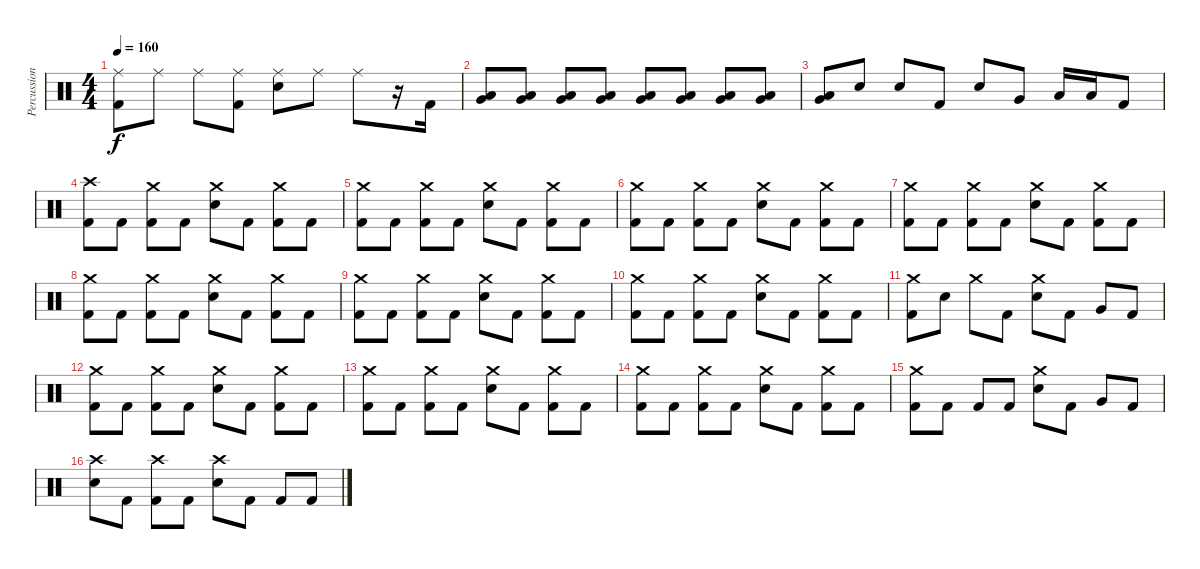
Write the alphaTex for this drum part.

\track ("Percussion" "Percussion") {instrument percussion}
\staff {score}
\articulation defaults
\ts (4 4)
\tempo 160
\clef neutral
\ks c
("Ride (middle)" "Kick (hit) 2").8{dy f} "Ride (middle)".8 "Ride (middle)".8 ("Ride (middle)" "Kick (hit) 2").8 ("Ride (middle)" "Electric Snare (hit)").8 "Ride (middle)".8 "Ride (middle)".8 r.16 "Kick (hit) 2".16 |
("Very Low Tom (hit)" "Low Floor Tom (hit)").8 ("Very Low Tom (hit)" "Low Floor Tom (hit)").8 ("Very Low Tom (hit)" "Low Floor Tom (hit)").8 ("Very Low Tom (hit)" "Low Floor Tom (hit)").8 ("Very Low Tom (hit)" "Low Floor Tom (hit)").8 ("Very Low Tom (hit)" "Low Floor Tom (hit)").8 ("Very Low Tom (hit)" "Low Floor Tom (hit)").8 ("Very Low Tom (hit)" "Low Floor Tom (hit)").8 |
("Very Low Tom (hit)" "Low Floor Tom (hit)").8 "Electric Snare (hit)".8 "Electric Snare (hit)".8 "Kick (hit) 2".8 "Electric Snare (hit)".8 "Very Low Tom (hit)".8 "Low Floor Tom (hit)".16 "Low Floor Tom (hit)".16 "Kick (hit) 2".8 |
("Crash high (hit)" "Kick (hit) 2").8 "Kick (hit) 2".8 ("Crash medium (hit)" "Kick (hit) 2").8 "Kick (hit) 2".8 ("Crash medium (hit)" "Electric Snare (hit)").8 "Kick (hit) 2".8 ("Crash medium (hit)" "Kick (hit) 2").8 "Kick (hit) 2".8 |
("Crash medium (hit)" "Kick (hit) 2").8 "Kick (hit) 2".8 ("Crash medium (hit)" "Kick (hit) 2").8 "Kick (hit) 2".8 ("Crash medium (hit)" "Electric Snare (hit)").8 "Kick (hit) 2".8 ("Crash medium (hit)" "Kick (hit) 2").8 "Kick (hit) 2".8 |
("Crash medium (hit)" "Kick (hit) 2").8 "Kick (hit) 2".8 ("Crash medium (hit)" "Kick (hit) 2").8 "Kick (hit) 2".8 ("Crash medium (hit)" "Electric Snare (hit)").8 "Kick (hit) 2".8 ("Crash medium (hit)" "Kick (hit) 2").8 "Kick (hit) 2".8 |
("Crash medium (hit)" "Kick (hit) 2").8 "Kick (hit) 2".8 ("Crash medium (hit)" "Kick (hit) 2").8 "Kick (hit) 2".8 ("Crash medium (hit)" "Electric Snare (hit)").8 "Kick (hit) 2".8 ("Crash medium (hit)" "Kick (hit) 2").8 "Kick (hit) 2".8 |
("Crash medium (hit)" "Kick (hit) 2").8 "Kick (hit) 2".8 ("Crash medium (hit)" "Kick (hit) 2").8 "Kick (hit) 2".8 ("Crash medium (hit)" "Electric Snare (hit)").8 "Kick (hit) 2".8 ("Crash medium (hit)" "Kick (hit) 2").8 "Kick (hit) 2".8 |
("Crash medium (hit)" "Kick (hit) 2").8 "Kick (hit) 2".8 ("Crash medium (hit)" "Kick (hit) 2").8 "Kick (hit) 2".8 ("Crash medium (hit)" "Electric Snare (hit)").8 "Kick (hit) 2".8 ("Crash medium (hit)" "Kick (hit) 2").8 "Kick (hit) 2".8 |
("Crash medium (hit)" "Kick (hit) 2").8 "Kick (hit) 2".8 ("Crash medium (hit)" "Kick (hit) 2").8 "Kick (hit) 2".8 ("Crash medium (hit)" "Electric Snare (hit)").8 "Kick (hit) 2".8 ("Crash medium (hit)" "Kick (hit) 2").8 "Kick (hit) 2".8 |
("Crash medium (hit)" "Kick (hit) 2").8 "Electric Snare (hit)".8 "Crash medium (hit)".8 "Kick (hit) 2".8 ("Crash medium (hit)" "Electric Snare (hit)").8 "Kick (hit) 2".8 "Very Low Tom (hit)".8 "Kick (hit) 2".8 |
("Crash medium (hit)" "Kick (hit) 2").8 "Kick (hit) 2".8 ("Crash medium (hit)" "Kick (hit) 2").8 "Kick (hit) 2".8 ("Crash medium (hit)" "Electric Snare (hit)").8 "Kick (hit) 2".8 ("Crash medium (hit)" "Kick (hit) 2").8 "Kick (hit) 2".8 |
("Crash medium (hit)" "Kick (hit) 2").8 "Kick (hit) 2".8 ("Crash medium (hit)" "Kick (hit) 2").8 "Kick (hit) 2".8 ("Crash medium (hit)" "Electric Snare (hit)").8 "Kick (hit) 2".8 ("Crash medium (hit)" "Kick (hit) 2").8 "Kick (hit) 2".8 |
("Crash medium (hit)" "Kick (hit) 2").8 "Kick (hit) 2".8 ("Crash medium (hit)" "Kick (hit) 2").8 "Kick (hit) 2".8 ("Crash medium (hit)" "Electric Snare (hit)").8 "Kick (hit) 2".8 ("Crash medium (hit)" "Kick (hit) 2").8 "Kick (hit) 2".8 |
("Crash medium (hit)" "Kick (hit) 2").8 "Kick (hit) 2".8 "Kick (hit) 2".8 "Kick (hit) 2".8 ("Crash medium (hit)" "Electric Snare (hit)").8 "Kick (hit) 2".8 "Very Low Tom (hit)".8 "Kick (hit) 2".8 |
("Crash high (hit)" "Electric Snare (hit)").8 "Kick (hit) 2".8 ("Crash high (hit)" "Kick (hit) 2").8 "Kick (hit) 2".8 ("Crash high (hit)" "Electric Snare (hit)").8 "Kick (hit) 2".8 "Kick (hit) 2".8 "Kick (hit) 2".8
